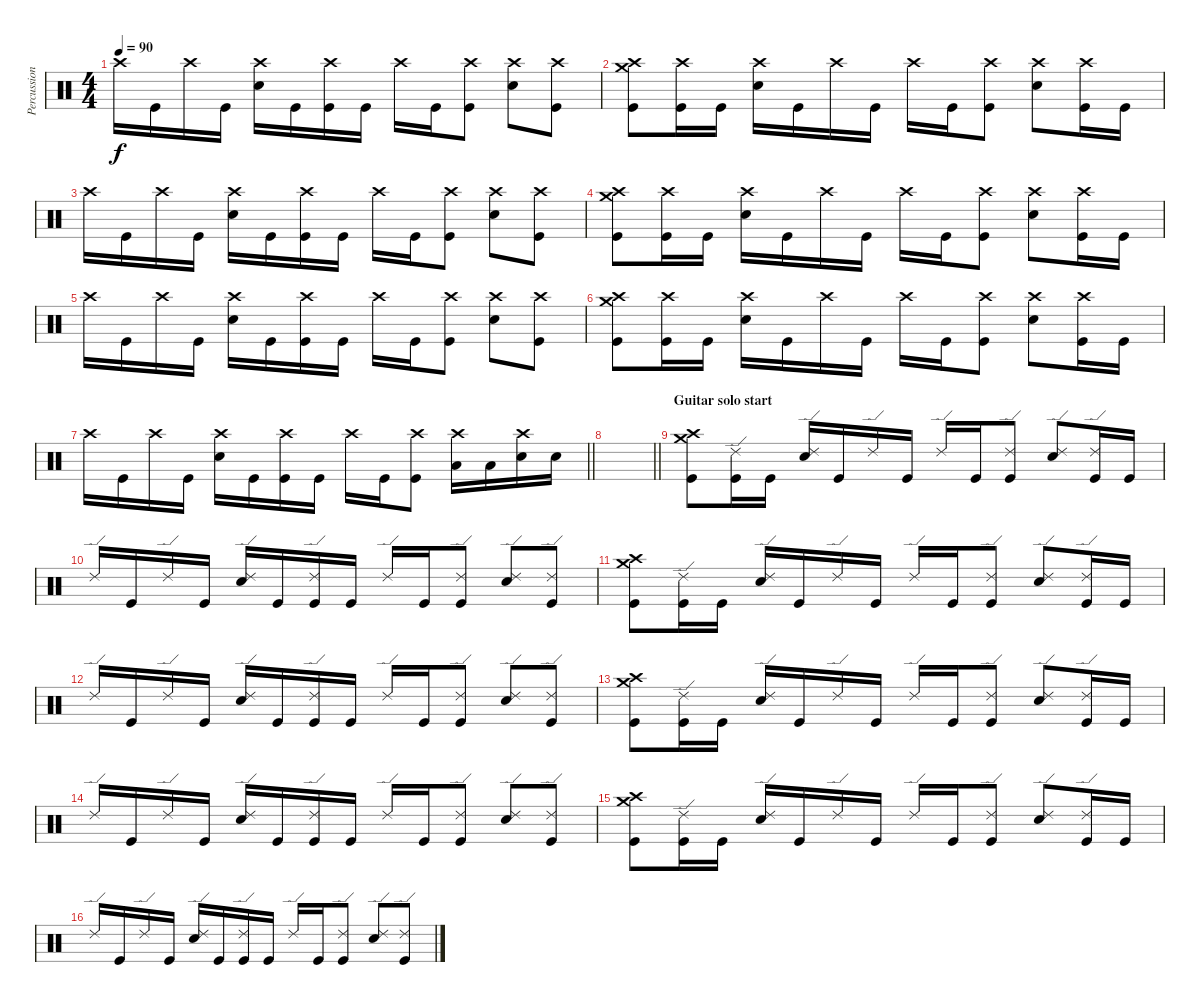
\track ("Percussion" "Percussion") {instrument percussion}
\staff {score}
\articulation defaults
\ts (4 4)
\tempo 90
\clef neutral
\ks c "Crash high (hit)".16{dy f} "Kick (hit)".16 "Crash high (hit)".16 "Kick (hit)".16
("Snare (hit) 2" "Crash high (hit)").16 "Kick (hit)".16 ("Kick (hit)" "Crash high (hit)").16 "Kick (hit)".16 "Crash high (hit)".16 "Kick (hit)".16 ("Kick (hit)" "Crash high (hit)").8 ("Snare (hit) 2" "Crash high (hit)").8 ("Kick (hit)" "Crash high (hit)").8 |
("Kick (hit)" "Crash high (hit)" "Crash medium (hit)").8 ("Kick (hit)" "Crash high (hit)").16 "Kick (hit)".16 ("Snare (hit) 2" "Crash high (hit)").16 "Kick (hit)".16 "Crash high (hit)".16 "Kick (hit)".16 "Crash high (hit)".16 "Kick (hit)".16 ("Kick (hit)" "Crash high (hit)").8 ("Snare (hit) 2" "Crash high (hit)").8 ("Kick (hit)" "Crash high (hit)").16 "Kick (hit)".16 |
"Crash high (hit)".16 "Kick (hit)".16 "Crash high (hit)".16 "Kick (hit)".16 ("Snare (hit) 2" "Crash high (hit)").16 "Kick (hit)".16 ("Kick (hit)" "Crash high (hit)").16 "Kick (hit)".16 "Crash high (hit)".16 "Kick (hit)".16 ("Kick (hit)" "Crash high (hit)").8 ("Snare (hit) 2" "Crash high (hit)").8 ("Kick (hit)" "Crash high (hit)").8 |
("Kick (hit)" "Crash high (hit)" "Crash medium (hit)").8 ("Kick (hit)" "Crash high (hit)").16 "Kick (hit)".16 ("Snare (hit) 2" "Crash high (hit)").16 "Kick (hit)".16 "Crash high (hit)".16 "Kick (hit)".16 "Crash high (hit)".16 "Kick (hit)".16 ("Kick (hit)" "Crash high (hit)").8 ("Snare (hit) 2" "Crash high (hit)").8 ("Kick (hit)" "Crash high (hit)").16 "Kick (hit)".16 |
"Crash high (hit)".16 "Kick (hit)".16 "Crash high (hit)".16 "Kick (hit)".16 ("Snare (hit) 2" "Crash high (hit)").16 "Kick (hit)".16 ("Kick (hit)" "Crash high (hit)").16 "Kick (hit)".16 "Crash high (hit)".16 "Kick (hit)".16 ("Kick (hit)" "Crash high (hit)").8 ("Snare (hit) 2" "Crash high (hit)").8 ("Kick (hit)" "Crash high (hit)").8 |
("Kick (hit)" "Crash high (hit)" "Crash medium (hit)").8 ("Kick (hit)" "Crash high (hit)").16 "Kick (hit)".16 ("Snare (hit) 2" "Crash high (hit)").16 "Kick (hit)".16 "Crash high (hit)".16 "Kick (hit)".16 "Crash high (hit)".16 "Kick (hit)".16 ("Kick (hit)" "Crash high (hit)").8 ("Snare (hit) 2" "Crash high (hit)").8 ("Kick (hit)" "Crash high (hit)").16 "Kick (hit)".16 |
\barLineRight lightlight "Crash high (hit)".16 "Kick (hit)".16 "Crash high (hit)".16 "Kick (hit)".16
("Snare (hit) 2" "Crash high (hit)").16 "Kick (hit)".16 ("Kick (hit)" "Crash high (hit)").16 "Kick (hit)".16 "Crash high (hit)".16 "Kick (hit)".16 ("Kick (hit)" "Crash high (hit)").8 ("Low Floor Tom (hit)" "Crash high (hit)").16 "Low Floor Tom (hit)".16 ("Snare (hit) 2" "Crash high (hit)").16 "Snare (hit) 2".16 |
\barLineRight lightlight
|
\section ("" "Guitar solo start")
("Kick (hit)" "Crash high (hit)" "Crash medium (hit)").8 ("Kick (hit)" "Ride (edge) 2").16 "Kick (hit)".16 ("Snare (hit) 2" "Ride (edge) 2").16 "Kick (hit)".16 "Ride (edge) 2".16 "Kick (hit)".16 "Ride (edge) 2".16 "Kick (hit)".16 ("Kick (hit)" "Ride (edge) 2").8 ("Snare (hit) 2" "Ride (edge) 2").8 ("Kick (hit)" "Ride (edge) 2").16 "Kick (hit)".16 |
"Ride (edge) 2".16 "Kick (hit)".16 "Ride (edge) 2".16 "Kick (hit)".16 ("Snare (hit) 2" "Ride (edge) 2").16 "Kick (hit)".16 ("Kick (hit)" "Ride (edge) 2").16 "Kick (hit)".16 "Ride (edge) 2".16 "Kick (hit)".16 ("Kick (hit)" "Ride (edge) 2").8 ("Snare (hit) 2" "Ride (edge) 2").8 ("Kick (hit)" "Ride (edge) 2").8 |
("Kick (hit)" "Crash high (hit)" "Crash medium (hit)").8 ("Kick (hit)" "Ride (edge) 2").16 "Kick (hit)".16 ("Snare (hit) 2" "Ride (edge) 2").16 "Kick (hit)".16 "Ride (edge) 2".16 "Kick (hit)".16 "Ride (edge) 2".16 "Kick (hit)".16 ("Kick (hit)" "Ride (edge) 2").8 ("Snare (hit) 2" "Ride (edge) 2").8 ("Kick (hit)" "Ride (edge) 2").16 "Kick (hit)".16 |
"Ride (edge) 2".16 "Kick (hit)".16 "Ride (edge) 2".16 "Kick (hit)".16 ("Snare (hit) 2" "Ride (edge) 2").16 "Kick (hit)".16 ("Kick (hit)" "Ride (edge) 2").16 "Kick (hit)".16 "Ride (edge) 2".16 "Kick (hit)".16 ("Kick (hit)" "Ride (edge) 2").8 ("Snare (hit) 2" "Ride (edge) 2").8 ("Kick (hit)" "Ride (edge) 2").8 |
("Kick (hit)" "Crash high (hit)" "Crash medium (hit)").8 ("Kick (hit)" "Ride (edge) 2").16 "Kick (hit)".16 ("Snare (hit) 2" "Ride (edge) 2").16 "Kick (hit)".16 "Ride (edge) 2".16 "Kick (hit)".16 "Ride (edge) 2".16 "Kick (hit)".16 ("Kick (hit)" "Ride (edge) 2").8 ("Snare (hit) 2" "Ride (edge) 2").8 ("Kick (hit)" "Ride (edge) 2").16 "Kick (hit)".16 |
"Ride (edge) 2".16 "Kick (hit)".16 "Ride (edge) 2".16 "Kick (hit)".16 ("Snare (hit) 2" "Ride (edge) 2").16 "Kick (hit)".16 ("Kick (hit)" "Ride (edge) 2").16 "Kick (hit)".16 "Ride (edge) 2".16 "Kick (hit)".16 ("Kick (hit)" "Ride (edge) 2").8 ("Snare (hit) 2" "Ride (edge) 2").8 ("Kick (hit)" "Ride (edge) 2").8 |
("Kick (hit)" "Crash high (hit)" "Crash medium (hit)").8 ("Kick (hit)" "Ride (edge) 2").16 "Kick (hit)".16 ("Snare (hit) 2" "Ride (edge) 2").16 "Kick (hit)".16 "Ride (edge) 2".16 "Kick (hit)".16 "Ride (edge) 2".16 "Kick (hit)".16 ("Kick (hit)" "Ride (edge) 2").8 ("Snare (hit) 2" "Ride (edge) 2").8 ("Kick (hit)" "Ride (edge) 2").16 "Kick (hit)".16 |
"Ride (edge) 2".16 "Kick (hit)".16 "Ride (edge) 2".16 "Kick (hit)".16 ("Snare (hit) 2" "Ride (edge) 2").16 "Kick (hit)".16 ("Kick (hit)" "Ride (edge) 2").16 "Kick (hit)".16 "Ride (edge) 2".16 "Kick (hit)".16 ("Kick (hit)" "Ride (edge) 2").8 ("Snare (hit) 2" "Ride (edge) 2").8 ("Kick (hit)" "Ride (edge) 2").8
